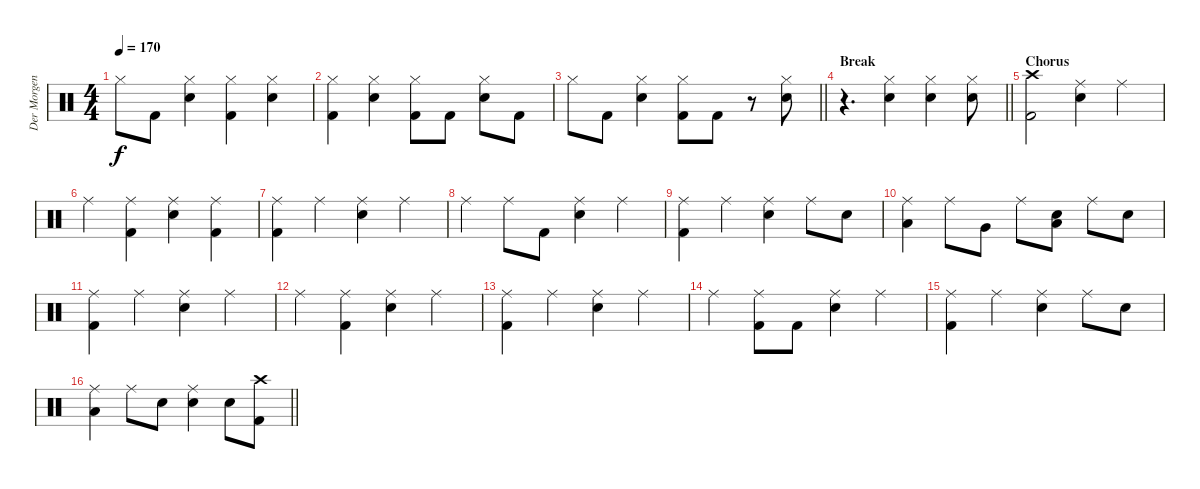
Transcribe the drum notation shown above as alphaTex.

\track ("Der Morgenstern" "Der Morgen") {instrument percussion}
\staff {score}
\articulation defaults
\ts (4 4)
\tempo 170
\clef neutral
\ks c "Hi-Hat (closed)".8{dy f} "Kick (hit) 2".8
("Hi-Hat (closed)" "Electric Snare (hit)").4 ("Hi-Hat (closed)" "Kick (hit) 2").4 ("Hi-Hat (closed)" "Electric Snare (hit)").4 |
("Hi-Hat (closed)" "Kick (hit) 2").4 ("Hi-Hat (closed)" "Electric Snare (hit)").4 ("Hi-Hat (closed)" "Kick (hit) 2").8 "Kick (hit) 2".8 ("Hi-Hat (closed)" "Electric Snare (hit)").8 "Kick (hit) 2".8 |
\barLineRight lightlight "Hi-Hat (closed)".8 "Kick (hit) 2".8
("Hi-Hat (closed)" "Electric Snare (hit)").4 ("Hi-Hat (closed)" "Kick (hit) 2").8 "Kick (hit) 2".8 r.8 ("Hi-Hat (closed)" "Electric Snare (hit)").8 |
\section ("" "Break")
\barLineRight lightlight
r.4{d} ("Hi-Hat (closed)" "Electric Snare (hit)").4 ("Hi-Hat (closed)" "Electric Snare (hit)").4 ("Hi-Hat (closed)" "Electric Snare (hit)").8 |
\section ("" "Chorus")
("Crash high (hit)" "Kick (hit) 2").2 ("Ride (middle)" "Electric Snare (hit)").4 "Ride (middle)".4 |
"Ride (middle)".4 ("Ride (middle)" "Kick (hit) 2").4 ("Ride (middle)" "Electric Snare (hit)").4 ("Ride (middle)" "Kick (hit) 2").4 |
("Ride (middle)" "Kick (hit) 2").4 "Ride (middle)".4 ("Ride (middle)" "Electric Snare (hit)").4 "Ride (middle)".4 |
"Ride (middle)".4 "Ride (middle)".8 "Kick (hit) 2".8 ("Ride (middle)" "Electric Snare (hit)").4 "Ride (middle)".4 |
("Ride (middle)" "Kick (hit) 2").4 "Ride (middle)".4 ("Ride (middle)" "Electric Snare (hit)").4 "Ride (middle)".8 "Electric Snare (hit)".8 |
("Ride (middle)" "Low Tom (hit)").4 "Ride (middle)".8 "Very Low Tom (hit)".8 "Ride (middle)".8 ("Low Tom (hit)" "Electric Snare (hit)").8 "Ride (middle)".8 "Electric Snare (hit)".8 |
("Ride (middle)" "Kick (hit) 2").4 "Ride (middle)".4 ("Ride (middle)" "Electric Snare (hit)").4 "Ride (middle)".4 |
"Ride (middle)".4 ("Ride (middle)" "Kick (hit) 2").4 ("Ride (middle)" "Electric Snare (hit)").4 "Ride (middle)".4 |
("Ride (middle)" "Kick (hit) 2").4 "Ride (middle)".4 ("Ride (middle)" "Electric Snare (hit)").4 "Ride (middle)".4 |
"Ride (middle)".4 ("Ride (middle)" "Kick (hit) 2").8 "Kick (hit) 2".8 ("Ride (middle)" "Electric Snare (hit)").4 "Ride (middle)".4 |
("Ride (middle)" "Kick (hit) 2").4 "Ride (middle)".4 ("Ride (middle)" "Electric Snare (hit)").4 "Ride (middle)".8 "Electric Snare (hit)".8 |
\barLineRight lightlight
("Ride (middle)" "Low Tom (hit)").4 "Ride (middle)".8 "Electric Snare (hit)".8 ("Ride (middle)" "Electric Snare (hit)").4 "Electric Snare (hit)".8 ("Crash high (hit)" "Kick (hit) 2").8
